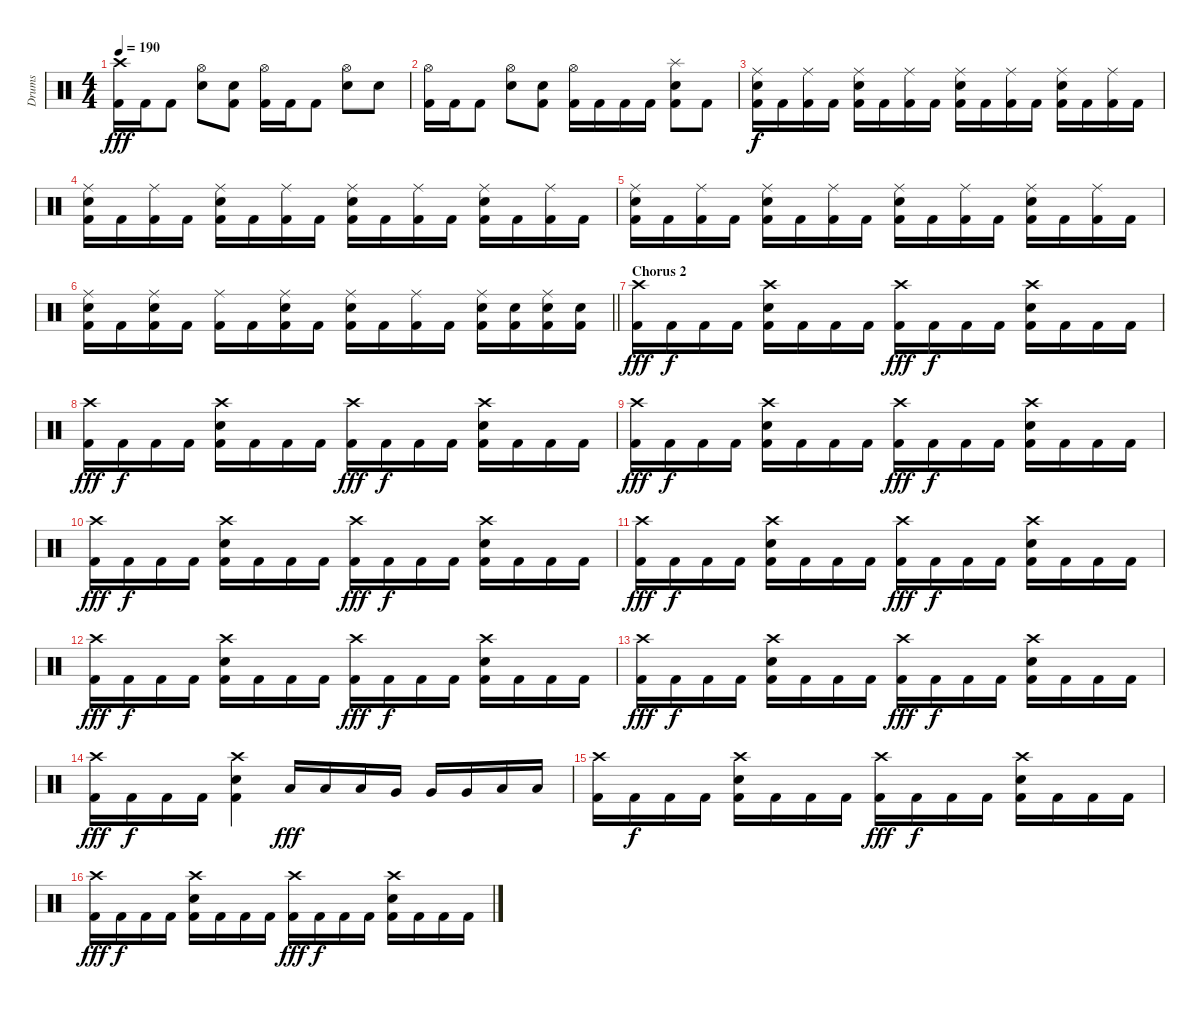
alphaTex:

\track ("Drums" "Drums") {instrument percussion}
\staff {score}
\articulation defaults
\ts (4 4)
\tempo 190
\clef neutral
\ks c
("Crash high (hit)" "Kick (hit) 2").16{dy fff} "Kick (hit) 2".16 "Kick (hit) 2".8 ("Hi-Hat (open)" "Electric Snare (hit)").8 ("Electric Snare (hit)" "Kick (hit) 2").8 ("Hi-Hat (open)" "Kick (hit) 2").16 "Kick (hit) 2".16 "Kick (hit) 2".8 ("Hi-Hat (open)" "Electric Snare (hit)").8 "Electric Snare (hit)".8 |
("Hi-Hat (open)" "Kick (hit) 2").16 "Kick (hit) 2".16 "Kick (hit) 2".8 ("Hi-Hat (open)" "Electric Snare (hit)").8 ("Electric Snare (hit)" "Kick (hit) 2").8 ("Hi-Hat (open)" "Kick (hit) 2").16 "Kick (hit) 2".16 "Kick (hit) 2".16 "Kick (hit) 2".16 ("Splash (hit)" "Electric Snare (hit)" "Kick (hit) 2").8 "Kick (hit) 2".8 |
("Ride (middle)" "Electric Snare (hit)" "Kick (hit) 2").16{dy f} "Kick (hit) 2".16 ("Ride (middle)" "Kick (hit) 2").16 "Kick (hit) 2".16 ("Ride (middle)" "Electric Snare (hit)" "Kick (hit) 2").16 "Kick (hit) 2".16 ("Ride (middle)" "Kick (hit) 2").16 "Kick (hit) 2".16 ("Ride (middle)" "Electric Snare (hit)" "Kick (hit) 2").16 "Kick (hit) 2".16 ("Ride (middle)" "Kick (hit) 2").16 "Kick (hit) 2".16 ("Ride (middle)" "Electric Snare (hit)" "Kick (hit) 2").16 "Kick (hit) 2".16 ("Ride (middle)" "Kick (hit) 2").16 "Kick (hit) 2".16 |
("Ride (middle)" "Electric Snare (hit)" "Kick (hit) 2").16 "Kick (hit) 2".16 ("Ride (middle)" "Kick (hit) 2").16 "Kick (hit) 2".16 ("Ride (middle)" "Electric Snare (hit)" "Kick (hit) 2").16 "Kick (hit) 2".16 ("Ride (middle)" "Kick (hit) 2").16 "Kick (hit) 2".16 ("Ride (middle)" "Electric Snare (hit)" "Kick (hit) 2").16 "Kick (hit) 2".16 ("Ride (middle)" "Kick (hit) 2").16 "Kick (hit) 2".16 ("Ride (middle)" "Electric Snare (hit)" "Kick (hit) 2").16 "Kick (hit) 2".16 ("Ride (middle)" "Kick (hit) 2").16 "Kick (hit) 2".16 |
("Ride (middle)" "Electric Snare (hit)" "Kick (hit) 2").16 "Kick (hit) 2".16 ("Ride (middle)" "Kick (hit) 2").16 "Kick (hit) 2".16 ("Ride (middle)" "Electric Snare (hit)" "Kick (hit) 2").16 "Kick (hit) 2".16 ("Ride (middle)" "Kick (hit) 2").16 "Kick (hit) 2".16 ("Ride (middle)" "Electric Snare (hit)" "Kick (hit) 2").16 "Kick (hit) 2".16 ("Ride (middle)" "Kick (hit) 2").16 "Kick (hit) 2".16 ("Ride (middle)" "Electric Snare (hit)" "Kick (hit) 2").16 "Kick (hit) 2".16 ("Ride (middle)" "Kick (hit) 2").16 "Kick (hit) 2".16 |
\barLineRight lightlight
("Ride (middle)" "Electric Snare (hit)" "Kick (hit) 2").16 "Kick (hit) 2".16 ("Ride (middle)" "Electric Snare (hit)" "Kick (hit) 2").16 "Kick (hit) 2".16 ("Ride (middle)" "Kick (hit) 2").16 "Kick (hit) 2".16 ("Ride (middle)" "Electric Snare (hit)" "Kick (hit) 2").16 "Kick (hit) 2".16 ("Ride (middle)" "Electric Snare (hit)" "Kick (hit) 2").16 "Kick (hit) 2".16 ("Ride (middle)" "Kick (hit) 2").16 "Kick (hit) 2".16 ("Ride (middle)" "Electric Snare (hit)" "Kick (hit) 2").16 ("Electric Snare (hit)" "Kick (hit) 2").16 ("Ride (middle)" "Electric Snare (hit)" "Kick (hit) 2").16 ("Electric Snare (hit)" "Kick (hit) 2").16 |
\section ("" "Chorus 2")
("Crash high (hit)" "Kick (hit) 2").16{dy fff} "Kick (hit) 2".16{dy f} "Kick (hit) 2".16 "Kick (hit) 2".16 ("Crash high (hit)" "Electric Snare (hit)" "Kick (hit) 2").16 "Kick (hit) 2".16 "Kick (hit) 2".16 "Kick (hit) 2".16 ("Crash high (hit)" "Kick (hit) 2").16{dy fff} "Kick (hit) 2".16{dy f} "Kick (hit) 2".16 "Kick (hit) 2".16 ("Crash high (hit)" "Electric Snare (hit)" "Kick (hit) 2").16 "Kick (hit) 2".16 "Kick (hit) 2".16 "Kick (hit) 2".16 |
("Crash high (hit)" "Kick (hit) 2").16{dy fff} "Kick (hit) 2".16{dy f} "Kick (hit) 2".16 "Kick (hit) 2".16 ("Crash high (hit)" "Electric Snare (hit)" "Kick (hit) 2").16 "Kick (hit) 2".16 "Kick (hit) 2".16 "Kick (hit) 2".16 ("Crash high (hit)" "Kick (hit) 2").16{dy fff} "Kick (hit) 2".16{dy f} "Kick (hit) 2".16 "Kick (hit) 2".16 ("Crash high (hit)" "Electric Snare (hit)" "Kick (hit) 2").16 "Kick (hit) 2".16 "Kick (hit) 2".16 "Kick (hit) 2".16 |
("Crash high (hit)" "Kick (hit) 2").16{dy fff} "Kick (hit) 2".16{dy f} "Kick (hit) 2".16 "Kick (hit) 2".16 ("Crash high (hit)" "Electric Snare (hit)" "Kick (hit) 2").16 "Kick (hit) 2".16 "Kick (hit) 2".16 "Kick (hit) 2".16 ("Crash high (hit)" "Kick (hit) 2").16{dy fff} "Kick (hit) 2".16{dy f} "Kick (hit) 2".16 "Kick (hit) 2".16 ("Crash high (hit)" "Electric Snare (hit)" "Kick (hit) 2").16 "Kick (hit) 2".16 "Kick (hit) 2".16 "Kick (hit) 2".16 |
("Crash high (hit)" "Kick (hit) 2").16{dy fff} "Kick (hit) 2".16{dy f} "Kick (hit) 2".16 "Kick (hit) 2".16 ("Crash high (hit)" "Electric Snare (hit)" "Kick (hit) 2").16 "Kick (hit) 2".16 "Kick (hit) 2".16 "Kick (hit) 2".16 ("Crash high (hit)" "Kick (hit) 2").16{dy fff} "Kick (hit) 2".16{dy f} "Kick (hit) 2".16 "Kick (hit) 2".16 ("Crash high (hit)" "Electric Snare (hit)" "Kick (hit) 2").16 "Kick (hit) 2".16 "Kick (hit) 2".16 "Kick (hit) 2".16 |
("Crash high (hit)" "Kick (hit) 2").16{dy fff} "Kick (hit) 2".16{dy f} "Kick (hit) 2".16 "Kick (hit) 2".16 ("Crash high (hit)" "Electric Snare (hit)" "Kick (hit) 2").16 "Kick (hit) 2".16 "Kick (hit) 2".16 "Kick (hit) 2".16 ("Crash high (hit)" "Kick (hit) 2").16{dy fff} "Kick (hit) 2".16{dy f} "Kick (hit) 2".16 "Kick (hit) 2".16 ("Crash high (hit)" "Electric Snare (hit)" "Kick (hit) 2").16 "Kick (hit) 2".16 "Kick (hit) 2".16 "Kick (hit) 2".16 |
("Crash high (hit)" "Kick (hit) 2").16{dy fff} "Kick (hit) 2".16{dy f} "Kick (hit) 2".16 "Kick (hit) 2".16 ("Crash high (hit)" "Electric Snare (hit)" "Kick (hit) 2").16 "Kick (hit) 2".16 "Kick (hit) 2".16 "Kick (hit) 2".16 ("Crash high (hit)" "Kick (hit) 2").16{dy fff} "Kick (hit) 2".16{dy f} "Kick (hit) 2".16 "Kick (hit) 2".16 ("Crash high (hit)" "Electric Snare (hit)" "Kick (hit) 2").16 "Kick (hit) 2".16 "Kick (hit) 2".16 "Kick (hit) 2".16 |
("Crash high (hit)" "Kick (hit) 2").16{dy fff} "Kick (hit) 2".16{dy f} "Kick (hit) 2".16 "Kick (hit) 2".16 ("Crash high (hit)" "Electric Snare (hit)" "Kick (hit) 2").16 "Kick (hit) 2".16 "Kick (hit) 2".16 "Kick (hit) 2".16 ("Crash high (hit)" "Kick (hit) 2").16{dy fff} "Kick (hit) 2".16{dy f} "Kick (hit) 2".16 "Kick (hit) 2".16 ("Crash high (hit)" "Electric Snare (hit)" "Kick (hit) 2").16 "Kick (hit) 2".16 "Kick (hit) 2".16 "Kick (hit) 2".16 |
("Crash high (hit)" "Kick (hit) 2").16{dy fff} "Kick (hit) 2".16{dy f} "Kick (hit) 2".16 "Kick (hit) 2".16 ("Crash high (hit)" "Electric Snare (hit)" "Kick (hit) 2").4 "Low Tom (hit)".16{dy fff} "Low Tom (hit)".16 "Low Tom (hit)".16 "Very Low Tom (hit)".16 "Very Low Tom (hit)".16 "Very Low Tom (hit)".16 "Low Floor Tom (hit)".16 "Low Floor Tom (hit)".16 |
("Crash high (hit)" "Kick (hit) 2").16 "Kick (hit) 2".16{dy f} "Kick (hit) 2".16 "Kick (hit) 2".16 ("Crash high (hit)" "Electric Snare (hit)" "Kick (hit) 2").16 "Kick (hit) 2".16 "Kick (hit) 2".16 "Kick (hit) 2".16 ("Crash high (hit)" "Kick (hit) 2").16{dy fff} "Kick (hit) 2".16{dy f} "Kick (hit) 2".16 "Kick (hit) 2".16 ("Crash high (hit)" "Electric Snare (hit)" "Kick (hit) 2").16 "Kick (hit) 2".16 "Kick (hit) 2".16 "Kick (hit) 2".16 |
("Crash high (hit)" "Kick (hit) 2").16{dy fff} "Kick (hit) 2".16{dy f} "Kick (hit) 2".16 "Kick (hit) 2".16 ("Crash high (hit)" "Electric Snare (hit)" "Kick (hit) 2").16 "Kick (hit) 2".16 "Kick (hit) 2".16 "Kick (hit) 2".16 ("Crash high (hit)" "Kick (hit) 2").16{dy fff} "Kick (hit) 2".16{dy f} "Kick (hit) 2".16 "Kick (hit) 2".16 ("Crash high (hit)" "Electric Snare (hit)" "Kick (hit) 2").16 "Kick (hit) 2".16 "Kick (hit) 2".16 "Kick (hit) 2".16
